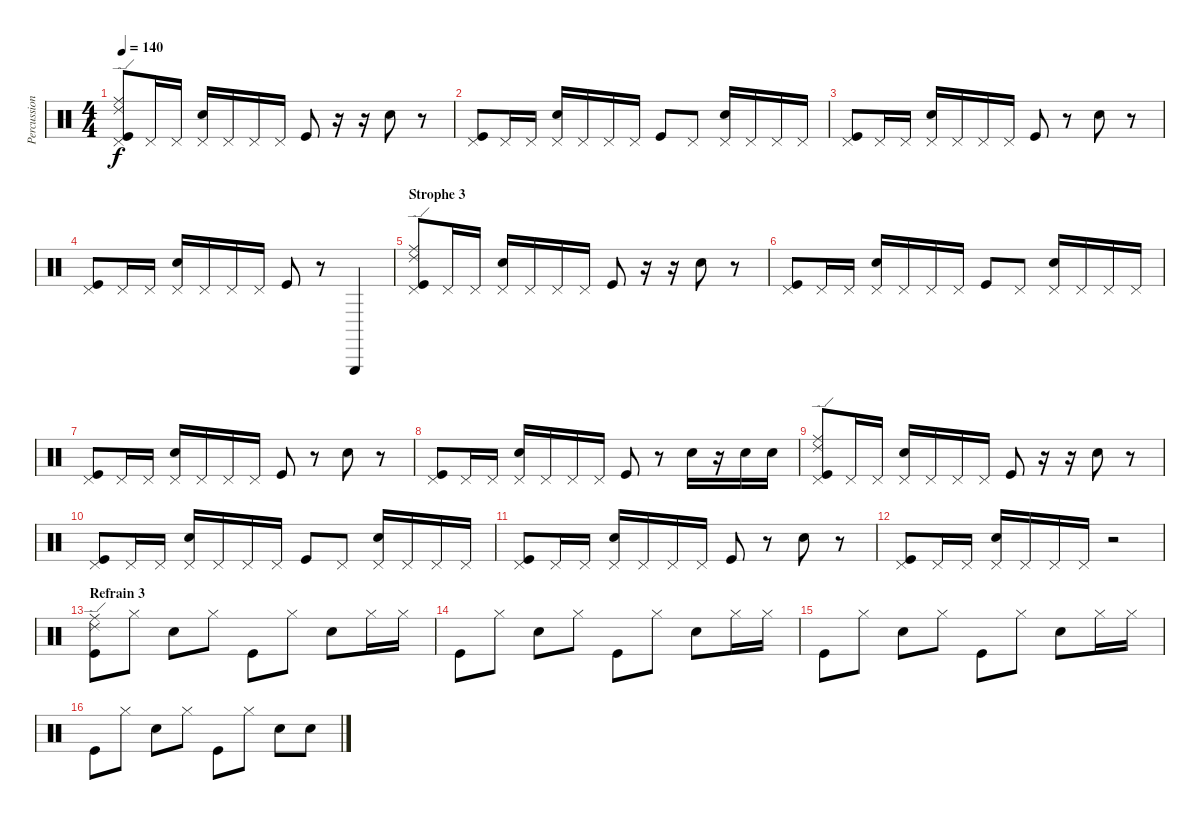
\track ("Percussion" "Percussion") {instrument percussion}
\staff {score}
\articulation defaults
\ts (4 4)
\tempo 140
\clef neutral
\ks c
("Ride (middle)" "Ride (edge) 2" "Pedal Hi-Hat (hit)" "Kick (hit)").8{dy f} "Pedal Hi-Hat (hit)".16 "Pedal Hi-Hat (hit)".16 ("Pedal Hi-Hat (hit)" "Snare (hit) 2").16 "Pedal Hi-Hat (hit)".16 "Pedal Hi-Hat (hit)".16 "Pedal Hi-Hat (hit)".16 "Kick (hit)".8 r.16 r.16 "Snare (hit) 2".8 r.8 |
("Pedal Hi-Hat (hit)" "Kick (hit)").8 "Pedal Hi-Hat (hit)".16 "Pedal Hi-Hat (hit)".16 ("Pedal Hi-Hat (hit)" "Snare (hit) 2").16 "Pedal Hi-Hat (hit)".16 "Pedal Hi-Hat (hit)".16 "Pedal Hi-Hat (hit)".16 "Kick (hit)".8 "Pedal Hi-Hat (hit)".8 ("Pedal Hi-Hat (hit)" "Snare (hit) 2").16 "Pedal Hi-Hat (hit)".16 "Pedal Hi-Hat (hit)".16 "Pedal Hi-Hat (hit)".16 |
("Pedal Hi-Hat (hit)" "Kick (hit)").8 "Pedal Hi-Hat (hit)".16 "Pedal Hi-Hat (hit)".16 ("Pedal Hi-Hat (hit)" "Snare (hit) 2").16 "Pedal Hi-Hat (hit)".16 "Pedal Hi-Hat (hit)".16 "Pedal Hi-Hat (hit)".16 "Kick (hit)".8 r.8 "Snare (hit) 2".8 r.8 |
("Pedal Hi-Hat (hit)" "Kick (hit)").8 "Pedal Hi-Hat (hit)".16 "Pedal Hi-Hat (hit)".16 ("Pedal Hi-Hat (hit)" "Snare (hit) 2").16 "Pedal Hi-Hat (hit)".16 "Pedal Hi-Hat (hit)".16 "Pedal Hi-Hat (hit)".16 "Kick (hit)".8 r.8 "Triangle (hit)".4 |
\section ("" "Strophe 3")
("Ride (middle)" "Ride (edge) 2" "Pedal Hi-Hat (hit)" "Kick (hit)").8 "Pedal Hi-Hat (hit)".16 "Pedal Hi-Hat (hit)".16 ("Pedal Hi-Hat (hit)" "Snare (hit) 2").16 "Pedal Hi-Hat (hit)".16 "Pedal Hi-Hat (hit)".16 "Pedal Hi-Hat (hit)".16 "Kick (hit)".8 r.16 r.16 "Snare (hit) 2".8 r.8 |
("Pedal Hi-Hat (hit)" "Kick (hit)").8 "Pedal Hi-Hat (hit)".16 "Pedal Hi-Hat (hit)".16 ("Pedal Hi-Hat (hit)" "Snare (hit) 2").16 "Pedal Hi-Hat (hit)".16 "Pedal Hi-Hat (hit)".16 "Pedal Hi-Hat (hit)".16 "Kick (hit)".8 "Pedal Hi-Hat (hit)".8 ("Pedal Hi-Hat (hit)" "Snare (hit) 2").16 "Pedal Hi-Hat (hit)".16 "Pedal Hi-Hat (hit)".16 "Pedal Hi-Hat (hit)".16 |
("Pedal Hi-Hat (hit)" "Kick (hit)").8 "Pedal Hi-Hat (hit)".16 "Pedal Hi-Hat (hit)".16 ("Pedal Hi-Hat (hit)" "Snare (hit) 2").16 "Pedal Hi-Hat (hit)".16 "Pedal Hi-Hat (hit)".16 "Pedal Hi-Hat (hit)".16 "Kick (hit)".8 r.8 "Snare (hit) 2".8 r.8 |
("Pedal Hi-Hat (hit)" "Kick (hit)").8 "Pedal Hi-Hat (hit)".16 "Pedal Hi-Hat (hit)".16 ("Pedal Hi-Hat (hit)" "Snare (hit) 2").16 "Pedal Hi-Hat (hit)".16 "Pedal Hi-Hat (hit)".16 "Pedal Hi-Hat (hit)".16 "Kick (hit)".8 r.8 "Snare (hit) 2".16 r.16 "Snare (hit) 2".16 "Snare (hit) 2".16 |
("Ride (middle)" "Ride (edge) 2" "Pedal Hi-Hat (hit)" "Kick (hit)").8 "Pedal Hi-Hat (hit)".16 "Pedal Hi-Hat (hit)".16 ("Pedal Hi-Hat (hit)" "Snare (hit) 2").16 "Pedal Hi-Hat (hit)".16 "Pedal Hi-Hat (hit)".16 "Pedal Hi-Hat (hit)".16 "Kick (hit)".8 r.16 r.16 "Snare (hit) 2".8 r.8 |
("Pedal Hi-Hat (hit)" "Kick (hit)").8 "Pedal Hi-Hat (hit)".16 "Pedal Hi-Hat (hit)".16 ("Pedal Hi-Hat (hit)" "Snare (hit) 2").16 "Pedal Hi-Hat (hit)".16 "Pedal Hi-Hat (hit)".16 "Pedal Hi-Hat (hit)".16 "Kick (hit)".8 "Pedal Hi-Hat (hit)".8 ("Pedal Hi-Hat (hit)" "Snare (hit) 2").16 "Pedal Hi-Hat (hit)".16 "Pedal Hi-Hat (hit)".16 "Pedal Hi-Hat (hit)".16 |
("Pedal Hi-Hat (hit)" "Kick (hit)").8 "Pedal Hi-Hat (hit)".16 "Pedal Hi-Hat (hit)".16 ("Pedal Hi-Hat (hit)" "Snare (hit) 2").16 "Pedal Hi-Hat (hit)".16 "Pedal Hi-Hat (hit)".16 "Pedal Hi-Hat (hit)".16 "Kick (hit)".8 r.8 "Snare (hit) 2".8 r.8 |
("Pedal Hi-Hat (hit)" "Kick (hit)").8 "Pedal Hi-Hat (hit)".16 "Pedal Hi-Hat (hit)".16 ("Pedal Hi-Hat (hit)" "Snare (hit) 2").16 "Pedal Hi-Hat (hit)".16 "Pedal Hi-Hat (hit)".16 "Pedal Hi-Hat (hit)".16 r.2 |
\section ("" "Refrain 3")
("Ride (middle)" "Ride (edge) 2" "Kick (hit)").8 "Hi-Hat (closed)".8 "Snare (hit) 2".8 "Hi-Hat (closed)".8 "Kick (hit)".8 "Hi-Hat (closed)".8 "Snare (hit) 2".8 "Hi-Hat (closed)".16 "Hi-Hat (closed)".16 |
"Kick (hit)".8 "Hi-Hat (closed)".8 "Snare (hit) 2".8 "Hi-Hat (closed)".8 "Kick (hit)".8 "Hi-Hat (closed)".8 "Snare (hit) 2".8 "Hi-Hat (closed)".16 "Hi-Hat (closed)".16 |
"Kick (hit)".8 "Hi-Hat (closed)".8 "Snare (hit) 2".8 "Hi-Hat (closed)".8 "Kick (hit)".8 "Hi-Hat (closed)".8 "Snare (hit) 2".8 "Hi-Hat (closed)".16 "Hi-Hat (closed)".16 |
"Kick (hit)".8 "Hi-Hat (closed)".8 "Snare (hit) 2".8 "Hi-Hat (closed)".8 "Kick (hit)".8 "Hi-Hat (closed)".8 "Snare (hit) 2".8 "Snare (hit) 2".8
